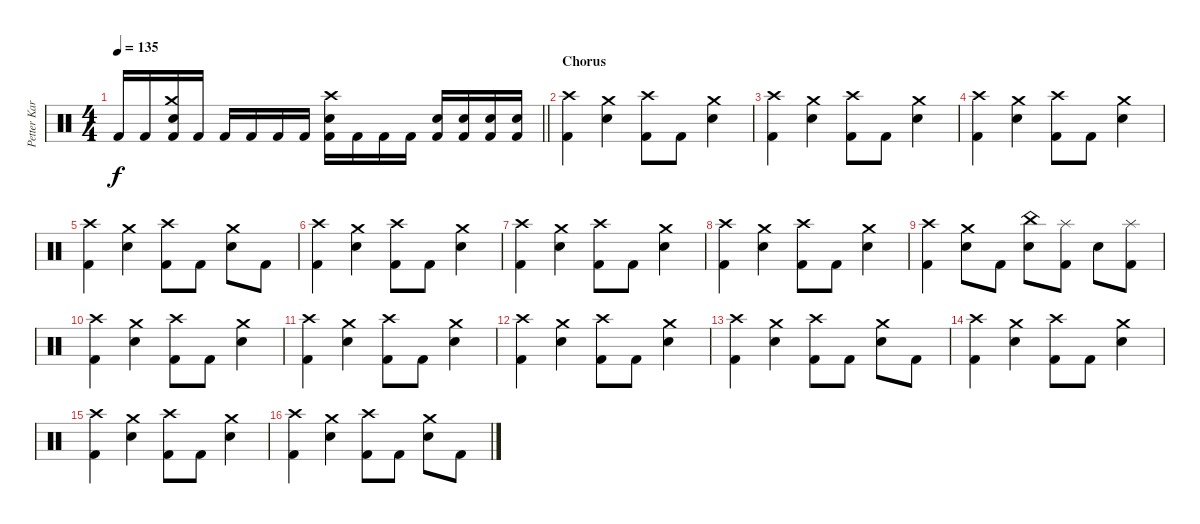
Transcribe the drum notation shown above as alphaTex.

\track ("Petter Karlsson" "Petter Kar") {instrument percussion}
\staff {score}
\articulation defaults
\ts (4 4)
\tempo 135
\clef neutral
\barLineRight lightlight
\ks c "Kick (hit) 2".16{dy f} "Kick (hit) 2".16
("Crash medium (hit)" "Electric Snare (hit)" "Kick (hit) 2").16 "Kick (hit) 2".16 "Kick (hit) 2".16 "Kick (hit) 2".16 "Kick (hit) 2".16 "Kick (hit) 2".16 ("Crash high (hit)" "Electric Snare (hit)" "Kick (hit) 2").16 "Kick (hit) 2".16 "Kick (hit) 2".16 "Kick (hit) 2".16 ("Electric Snare (hit)" "Kick (hit) 2").16 ("Electric Snare (hit)" "Kick (hit) 2").16 ("Electric Snare (hit)" "Kick (hit) 2").16 ("Electric Snare (hit)" "Kick (hit) 2").16 |
\section ("" "Chorus")
("Crash high (hit)" "Kick (hit) 2").4 ("Crash medium (hit)" "Electric Snare (hit)").4 ("Crash high (hit)" "Kick (hit) 2").8 "Kick (hit) 2".8 ("Crash medium (hit)" "Electric Snare (hit)").4 |
("Crash high (hit)" "Kick (hit) 2").4 ("Crash medium (hit)" "Electric Snare (hit)").4 ("Crash high (hit)" "Kick (hit) 2").8 "Kick (hit) 2".8 ("Crash medium (hit)" "Electric Snare (hit)").4 |
("Crash high (hit)" "Kick (hit) 2").4 ("Crash medium (hit)" "Electric Snare (hit)").4 ("Crash high (hit)" "Kick (hit) 2").8 "Kick (hit) 2".8 ("Crash medium (hit)" "Electric Snare (hit)").4 |
("Crash high (hit)" "Kick (hit) 2").4 ("Crash medium (hit)" "Electric Snare (hit)").4 ("Crash high (hit)" "Kick (hit) 2").8 "Kick (hit) 2".8 ("Crash medium (hit)" "Electric Snare (hit)").8 "Kick (hit) 2".8 |
("Crash high (hit)" "Kick (hit) 2").4 ("Crash medium (hit)" "Electric Snare (hit)").4 ("Crash high (hit)" "Kick (hit) 2").8 "Kick (hit) 2".8 ("Crash medium (hit)" "Electric Snare (hit)").4 |
("Crash high (hit)" "Kick (hit) 2").4 ("Crash medium (hit)" "Electric Snare (hit)").4 ("Crash high (hit)" "Kick (hit) 2").8 "Kick (hit) 2".8 ("Crash medium (hit)" "Electric Snare (hit)").4 |
("Crash high (hit)" "Kick (hit) 2").4 ("Crash medium (hit)" "Electric Snare (hit)").4 ("Crash high (hit)" "Kick (hit) 2").8 "Kick (hit) 2".8 ("Crash medium (hit)" "Electric Snare (hit)").4 |
("Crash high (hit)" "Kick (hit) 2").4 ("Crash medium (hit)" "Electric Snare (hit)").8 "Kick (hit) 2".8 ("China (hit)" "Electric Snare (hit)").8 ("Splash (hit)" "Kick (hit) 2").8 "Electric Snare (hit)".8 ("Splash (hit)" "Kick (hit) 2").8 |
("Crash high (hit)" "Kick (hit) 2").4 ("Crash medium (hit)" "Electric Snare (hit)").4 ("Crash high (hit)" "Kick (hit) 2").8 "Kick (hit) 2".8 ("Crash medium (hit)" "Electric Snare (hit)").4 |
("Crash high (hit)" "Kick (hit) 2").4 ("Crash medium (hit)" "Electric Snare (hit)").4 ("Crash high (hit)" "Kick (hit) 2").8 "Kick (hit) 2".8 ("Crash medium (hit)" "Electric Snare (hit)").4 |
("Crash high (hit)" "Kick (hit) 2").4 ("Crash medium (hit)" "Electric Snare (hit)").4 ("Crash high (hit)" "Kick (hit) 2").8 "Kick (hit) 2".8 ("Crash medium (hit)" "Electric Snare (hit)").4 |
("Crash high (hit)" "Kick (hit) 2").4 ("Crash medium (hit)" "Electric Snare (hit)").4 ("Crash high (hit)" "Kick (hit) 2").8 "Kick (hit) 2".8 ("Crash medium (hit)" "Electric Snare (hit)").8 "Kick (hit) 2".8 |
("Crash high (hit)" "Kick (hit) 2").4 ("Crash medium (hit)" "Electric Snare (hit)").4 ("Crash high (hit)" "Kick (hit) 2").8 "Kick (hit) 2".8 ("Crash medium (hit)" "Electric Snare (hit)").4 |
("Crash high (hit)" "Kick (hit) 2").4 ("Crash medium (hit)" "Electric Snare (hit)").4 ("Crash high (hit)" "Kick (hit) 2").8 "Kick (hit) 2".8 ("Crash medium (hit)" "Electric Snare (hit)").4 |
("Crash high (hit)" "Kick (hit) 2").4 ("Crash medium (hit)" "Electric Snare (hit)").4 ("Crash high (hit)" "Kick (hit) 2").8 "Kick (hit) 2".8 ("Crash medium (hit)" "Electric Snare (hit)").8 "Kick (hit) 2".8
